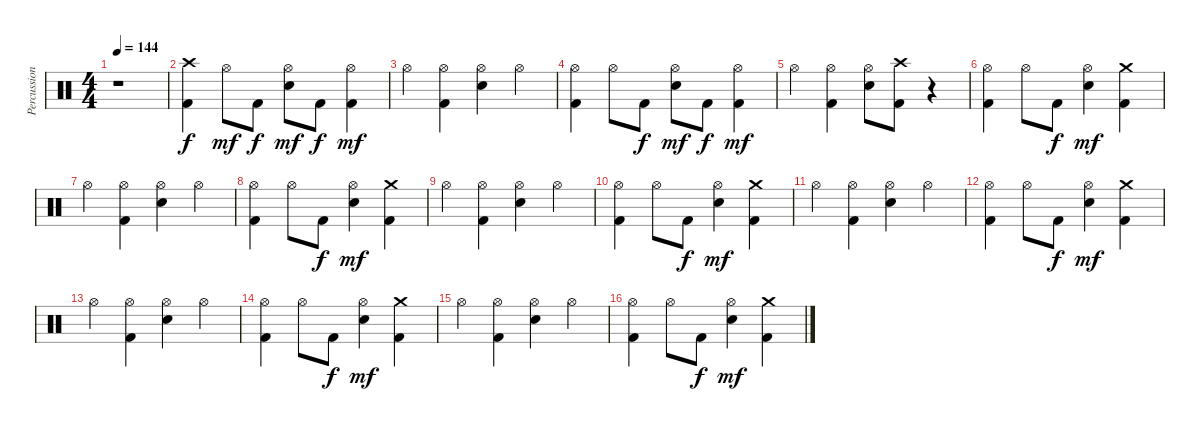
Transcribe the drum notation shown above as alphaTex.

\track ("Percussions" "Percussion") {instrument percussion}
\staff {score}
\articulation defaults
\ts (4 4)
\tempo 144
\clef neutral
\ks c
r.1{dy f} |
("Crash high (hit)" "Kick (hit) 2").4{volume 4} "Hi-Hat (open)".8{dy mf} "Kick (hit) 2".8{dy f} ("Hi-Hat (open)" "Electric Snare (hit)").8{dy mf volume 13} "Kick (hit) 2".8{dy f} ("Hi-Hat (open)" "Kick (hit) 2").4{dy mf} |
"Hi-Hat (open)".4 ("Hi-Hat (open)" "Kick (hit) 2").4 ("Hi-Hat (open)" "Electric Snare (hit)").4 "Hi-Hat (open)".4 |
("Hi-Hat (open)" "Kick (hit) 2").4 "Hi-Hat (open)".8 "Kick (hit) 2".8{dy f} ("Hi-Hat (open)" "Electric Snare (hit)").8{dy mf} "Kick (hit) 2".8{dy f} ("Hi-Hat (open)" "Kick (hit) 2").4{dy mf} |
"Hi-Hat (open)".4 ("Hi-Hat (open)" "Kick (hit) 2").4 ("Hi-Hat (open)" "Electric Snare (hit)").8 ("Crash high (hit)" "Kick (hit) 2").8 r.4 |
("Hi-Hat (open)" "Kick (hit) 2").4 "Hi-Hat (open)".8 "Kick (hit) 2".8{dy f} ("Hi-Hat (open)" "Electric Snare (hit)").4{dy mf} ("Crash medium (hit)" "Kick (hit) 2").4 |
"Hi-Hat (open)".4 ("Hi-Hat (open)" "Kick (hit) 2").4 ("Hi-Hat (open)" "Electric Snare (hit)").4 "Hi-Hat (open)".4 |
("Hi-Hat (open)" "Kick (hit) 2").4 "Hi-Hat (open)".8 "Kick (hit) 2".8{dy f} ("Hi-Hat (open)" "Electric Snare (hit)").4{dy mf} ("Crash medium (hit)" "Kick (hit) 2").4 |
"Hi-Hat (open)".4 ("Hi-Hat (open)" "Kick (hit) 2").4 ("Hi-Hat (open)" "Electric Snare (hit)").4 "Hi-Hat (open)".4 |
("Hi-Hat (open)" "Kick (hit) 2").4 "Hi-Hat (open)".8 "Kick (hit) 2".8{dy f} ("Hi-Hat (open)" "Electric Snare (hit)").4{dy mf} ("Crash medium (hit)" "Kick (hit) 2").4 |
"Hi-Hat (open)".4 ("Hi-Hat (open)" "Kick (hit) 2").4 ("Hi-Hat (open)" "Electric Snare (hit)").4 "Hi-Hat (open)".4 |
("Hi-Hat (open)" "Kick (hit) 2").4 "Hi-Hat (open)".8 "Kick (hit) 2".8{dy f} ("Hi-Hat (open)" "Electric Snare (hit)").4{dy mf} ("Crash medium (hit)" "Kick (hit) 2").4 |
"Hi-Hat (open)".4 ("Hi-Hat (open)" "Kick (hit) 2").4 ("Hi-Hat (open)" "Electric Snare (hit)").4 "Hi-Hat (open)".4 |
("Hi-Hat (open)" "Kick (hit) 2").4 "Hi-Hat (open)".8 "Kick (hit) 2".8{dy f} ("Hi-Hat (open)" "Electric Snare (hit)").4{dy mf} ("Crash medium (hit)" "Kick (hit) 2").4 |
"Hi-Hat (open)".4 ("Hi-Hat (open)" "Kick (hit) 2").4 ("Hi-Hat (open)" "Electric Snare (hit)").4 "Hi-Hat (open)".4 |
("Hi-Hat (open)" "Kick (hit) 2").4 "Hi-Hat (open)".8 "Kick (hit) 2".8{dy f} ("Hi-Hat (open)" "Electric Snare (hit)").4{dy mf} ("Crash medium (hit)" "Kick (hit) 2").4
